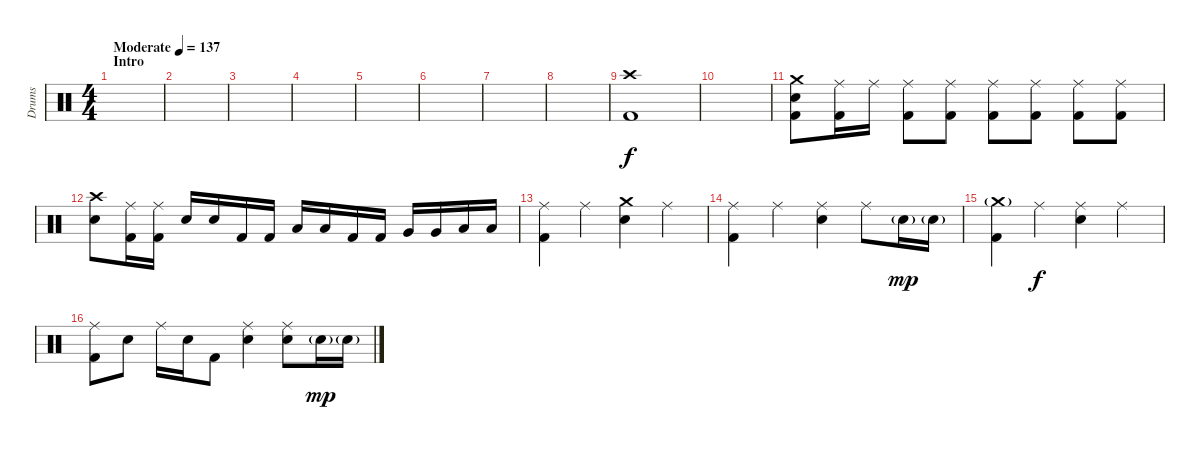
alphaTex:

\track ("Drums" "Drums") {instrument percussion}
\staff {score}
\articulation defaults
\ts (4 4)
\section ("" "Intro")
\tempo (137 "Moderate")
\clef neutral
\ks c
|
|
|
|
|
|
|
|
("Crash high (hit)" "Kick (hit) 2").1 |
|
("Crash medium (hit)" "Electric Snare (hit)" "Kick (hit) 2").8 ("Ride (middle)" "Kick (hit) 2").16 "Ride (middle)".16 ("Ride (middle)" "Kick (hit) 2").8 ("Ride (middle)" "Kick (hit) 2").8 ("Ride (middle)" "Kick (hit) 2").8 ("Ride (middle)" "Kick (hit) 2").8 ("Ride (middle)" "Kick (hit) 2").8 ("Ride (middle)" "Kick (hit) 2").8 |
("Crash high (hit)" "Electric Snare (hit)").8 ("Ride (middle)" "Kick (hit) 2").16 ("Ride (middle)" "Kick (hit) 2").16 "Electric Snare (hit)".16 "Electric Snare (hit)".16 "Kick (hit) 2".16 "Kick (hit) 2".16 "Low Tom (hit)".16 "Low Tom (hit)".16 "Kick (hit) 2".16 "Kick (hit) 2".16 "Very Low Tom (hit)".16 "Very Low Tom (hit)".16 "Low Floor Tom (hit)".16 "Low Floor Tom (hit)".16 |
("Ride (middle)" "Kick (hit) 2").4 "Ride (middle)".4 ("Crash medium (hit)" "Electric Snare (hit)").4 "Ride (middle)".4 |
("Ride (middle)" "Kick (hit) 2").4 "Ride (middle)".4 ("Ride (middle)" "Electric Snare (hit)").4 "Ride (middle)".8 "Electric Snare (hit)"{g}.16{dy mp} "Electric Snare (hit)"{g}.16 |
("Crash medium (hit)"{g} "Kick (hit) 2").4 "Ride (middle)".4{dy f} ("Ride (middle)" "Electric Snare (hit)").4 "Ride (middle)".4 |
("Ride (middle)" "Kick (hit) 2").8 "Electric Snare (hit)".8 "Ride (middle)".16 "Electric Snare (hit)".16 "Kick (hit) 2".8 ("Ride (middle)" "Electric Snare (hit)").4 ("Ride (middle)" "Electric Snare (hit)").8 "Electric Snare (hit)"{g}.16{dy mp} "Electric Snare (hit)"{g}.16
